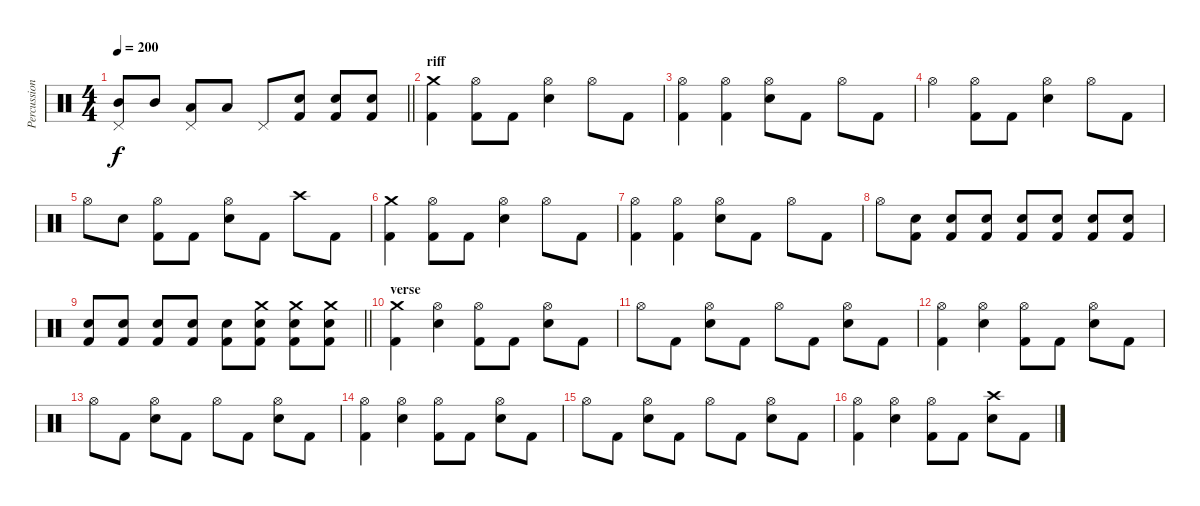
\track ("Percussion" "Percussion") {instrument percussion}
\staff {score}
\articulation defaults
\ts (4 4)
\tempo 200
\clef neutral
\barLineRight lightlight
\ks c
("Pedal Hi-Hat (hit)" "Mid Tom (hit)").8{dy f} "Mid Tom (hit)".8 ("Pedal Hi-Hat (hit)" "Low Tom (hit)").8 "Low Tom (hit)".8 "Pedal Hi-Hat (hit)".8 ("Electric Snare (hit)" "Kick (hit) 2").8 ("Electric Snare (hit)" "Kick (hit) 2").8 ("Electric Snare (hit)" "Kick (hit) 2").8 |
\section ("" "riff")
("Crash medium (hit)" "Kick (hit) 2").4 ("Hi-Hat (open)" "Kick (hit) 2").8 "Kick (hit) 2".8 ("Hi-Hat (open)" "Electric Snare (hit)").4 "Hi-Hat (open)".8 "Kick (hit) 2".8 |
("Hi-Hat (open)" "Kick (hit) 2").4 ("Hi-Hat (open)" "Kick (hit) 2").4 ("Hi-Hat (open)" "Electric Snare (hit)").8 "Kick (hit) 2".8 "Hi-Hat (open)".8 "Kick (hit) 2".8 |
"Hi-Hat (open)".4 ("Hi-Hat (open)" "Kick (hit) 2").8 "Kick (hit) 2".8 ("Hi-Hat (open)" "Electric Snare (hit)").4 "Hi-Hat (open)".8 "Kick (hit) 2".8 |
"Hi-Hat (open)".8 "Electric Snare (hit)".8 ("Hi-Hat (open)" "Kick (hit) 2").8 "Kick (hit) 2".8 ("Hi-Hat (open)" "Electric Snare (hit)").8 "Kick (hit) 2".8 "Crash high (hit)".8 "Kick (hit) 2".8 |
("Crash medium (hit)" "Kick (hit) 2").4 ("Hi-Hat (open)" "Kick (hit) 2").8 "Kick (hit) 2".8 ("Hi-Hat (open)" "Electric Snare (hit)").4 "Hi-Hat (open)".8 "Kick (hit) 2".8 |
("Hi-Hat (open)" "Kick (hit) 2").4 ("Hi-Hat (open)" "Kick (hit) 2").4 ("Hi-Hat (open)" "Electric Snare (hit)").8 "Kick (hit) 2".8 "Hi-Hat (open)".8 "Kick (hit) 2".8 |
"Hi-Hat (open)".8 ("Electric Snare (hit)" "Kick (hit) 2").8{volume 7} ("Electric Snare (hit)" "Kick (hit) 2").8{volume 13} ("Electric Snare (hit)" "Kick (hit) 2").8 ("Electric Snare (hit)" "Kick (hit) 2").8 ("Electric Snare (hit)" "Kick (hit) 2").8 ("Electric Snare (hit)" "Kick (hit) 2").8 ("Electric Snare (hit)" "Kick (hit) 2").8 |
\barLineRight lightlight
("Electric Snare (hit)" "Kick (hit) 2").8 ("Electric Snare (hit)" "Kick (hit) 2").8 ("Electric Snare (hit)" "Kick (hit) 2").8 ("Electric Snare (hit)" "Kick (hit) 2").8 ("Electric Snare (hit)" "Kick (hit) 2").8 ("Crash medium (hit)" "Electric Snare (hit)" "Kick (hit) 2").8 ("Crash medium (hit)" "Electric Snare (hit)" "Kick (hit) 2").8 ("Crash medium (hit)" "Electric Snare (hit)" "Kick (hit) 2").8 |
\section ("" "verse")
("Crash medium (hit)" "Kick (hit) 2").4 ("Hi-Hat (open)" "Electric Snare (hit)").4 ("Hi-Hat (open)" "Kick (hit) 2").8 "Kick (hit) 2".8 ("Hi-Hat (open)" "Electric Snare (hit)").8 "Kick (hit) 2".8 |
"Hi-Hat (open)".8 "Kick (hit) 2".8 ("Hi-Hat (open)" "Electric Snare (hit)").8 "Kick (hit) 2".8 "Hi-Hat (open)".8 "Kick (hit) 2".8 ("Hi-Hat (open)" "Electric Snare (hit)").8 "Kick (hit) 2".8 |
("Hi-Hat (open)" "Kick (hit) 2").4 ("Hi-Hat (open)" "Electric Snare (hit)").4 ("Hi-Hat (open)" "Kick (hit) 2").8 "Kick (hit) 2".8 ("Hi-Hat (open)" "Electric Snare (hit)").8 "Kick (hit) 2".8 |
"Hi-Hat (open)".8 "Kick (hit) 2".8 ("Hi-Hat (open)" "Electric Snare (hit)").8 "Kick (hit) 2".8 "Hi-Hat (open)".8 "Kick (hit) 2".8 ("Hi-Hat (open)" "Electric Snare (hit)").8 "Kick (hit) 2".8 |
("Hi-Hat (open)" "Kick (hit) 2").4 ("Hi-Hat (open)" "Electric Snare (hit)").4 ("Hi-Hat (open)" "Kick (hit) 2").8 "Kick (hit) 2".8 ("Hi-Hat (open)" "Electric Snare (hit)").8 "Kick (hit) 2".8 |
"Hi-Hat (open)".8 "Kick (hit) 2".8 ("Hi-Hat (open)" "Electric Snare (hit)").8 "Kick (hit) 2".8 "Hi-Hat (open)".8 "Kick (hit) 2".8 ("Hi-Hat (open)" "Electric Snare (hit)").8 "Kick (hit) 2".8 |
("Hi-Hat (open)" "Kick (hit) 2").4 ("Hi-Hat (open)" "Electric Snare (hit)").4 ("Hi-Hat (open)" "Kick (hit) 2").8 "Kick (hit) 2".8 ("Crash high (hit)" "Electric Snare (hit)").8 "Kick (hit) 2".8
